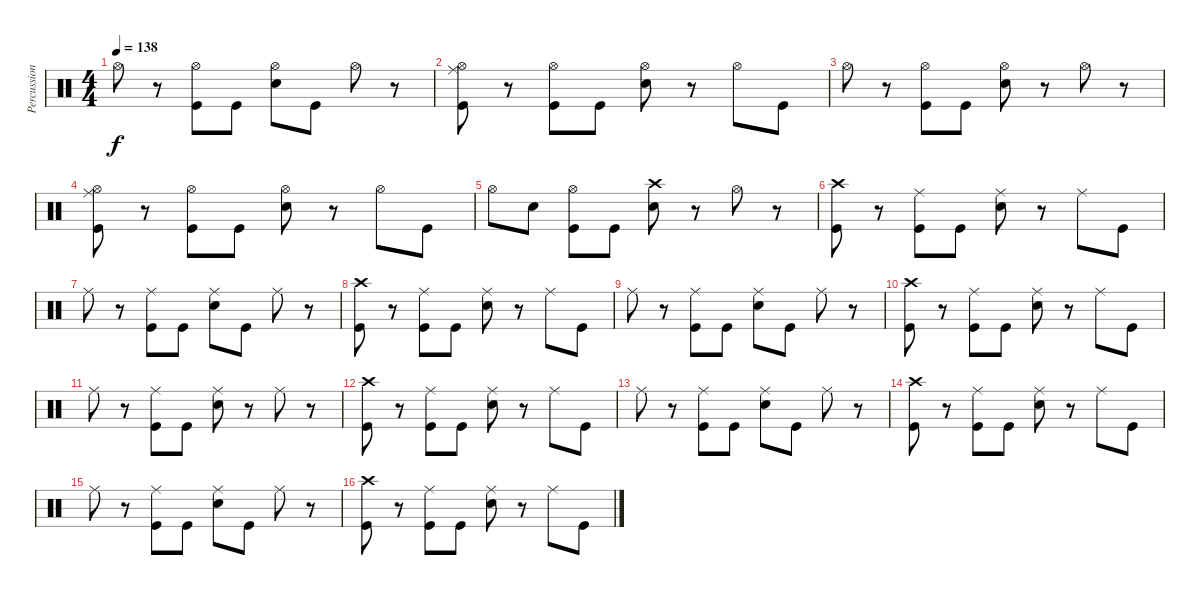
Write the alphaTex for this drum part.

\track ("Percussion" "Percussion") {instrument percussion}
\staff {score}
\articulation defaults
\ts (4 4)
\tempo 138
\clef neutral
\ks c "Hi-Hat (open)".8{dy f}
r.8 ("Hi-Hat (open)" "Kick (hit)").8 "Kick (hit)".8 ("Snare (hit) 2" "Hi-Hat (open)").8 "Kick (hit)".8 "Hi-Hat (open)".8 r.8 |
("Hi-Hat (open)" "Ride (middle)" "Kick (hit)").8 r.8 ("Hi-Hat (open)" "Kick (hit)").8 "Kick (hit)".8 ("Snare (hit) 2" "Hi-Hat (open)").8 r.8 "Hi-Hat (open)".8 "Kick (hit)".8 |
"Hi-Hat (open)".8 r.8 ("Hi-Hat (open)" "Kick (hit)").8 "Kick (hit)".8 ("Snare (hit) 2" "Hi-Hat (open)").8 r.8 "Hi-Hat (open)".8 r.8 |
("Hi-Hat (open)" "Ride (middle)" "Kick (hit)").8 r.8 ("Hi-Hat (open)" "Kick (hit)").8 "Kick (hit)".8 ("Snare (hit) 2" "Hi-Hat (open)").8 r.8 "Hi-Hat (open)".8 "Kick (hit)".8 |
"Hi-Hat (open)".8 "Snare (hit) 2".8 ("Hi-Hat (open)" "Kick (hit)").8 "Kick (hit)".8 ("Snare (hit) 2" "Crash high (hit)").8 r.8 "Hi-Hat (open)".8 r.8 |
("Crash high (hit)" "Kick (hit)").8 r.8 ("Ride (middle)" "Kick (hit)").8 "Kick (hit)".8 ("Snare (hit) 2" "Ride (middle)").8 r.8 "Ride (middle)".8 "Kick (hit)".8 |
"Ride (middle)".8 r.8 ("Ride (middle)" "Kick (hit)").8 "Kick (hit)".8 ("Snare (hit) 2" "Ride (middle)").8 "Kick (hit)".8 "Ride (middle)".8 r.8 |
("Crash high (hit)" "Kick (hit)").8 r.8 ("Ride (middle)" "Kick (hit)").8 "Kick (hit)".8 ("Snare (hit) 2" "Ride (middle)").8 r.8 "Ride (middle)".8 "Kick (hit)".8 |
"Ride (middle)".8 r.8 ("Ride (middle)" "Kick (hit)").8 "Kick (hit)".8 ("Snare (hit) 2" "Ride (middle)").8 "Kick (hit)".8 "Ride (middle)".8 r.8 |
("Crash high (hit)" "Kick (hit)").8 r.8 ("Ride (middle)" "Kick (hit)").8 "Kick (hit)".8 ("Snare (hit) 2" "Ride (middle)").8 r.8 "Ride (middle)".8 "Kick (hit)".8 |
"Ride (middle)".8 r.8 ("Ride (middle)" "Kick (hit)").8 "Kick (hit)".8 ("Snare (hit) 2" "Ride (middle)").8 r.8 "Ride (middle)".8 r.8 |
("Crash high (hit)" "Kick (hit)").8 r.8 ("Ride (middle)" "Kick (hit)").8 "Kick (hit)".8 ("Snare (hit) 2" "Ride (middle)").8 r.8 "Ride (middle)".8 "Kick (hit)".8 |
"Ride (middle)".8 r.8 ("Ride (middle)" "Kick (hit)").8 "Kick (hit)".8 ("Snare (hit) 2" "Ride (middle)").8 "Kick (hit)".8 "Ride (middle)".8 r.8 |
("Crash high (hit)" "Kick (hit)").8 r.8 ("Ride (middle)" "Kick (hit)").8 "Kick (hit)".8 ("Snare (hit) 2" "Ride (middle)").8 r.8 "Ride (middle)".8 "Kick (hit)".8 |
"Ride (middle)".8 r.8 ("Ride (middle)" "Kick (hit)").8 "Kick (hit)".8 ("Snare (hit) 2" "Ride (middle)").8 "Kick (hit)".8 "Ride (middle)".8 r.8 |
("Crash high (hit)" "Kick (hit)").8 r.8 ("Ride (middle)" "Kick (hit)").8 "Kick (hit)".8 ("Snare (hit) 2" "Ride (middle)").8 r.8 "Ride (middle)".8 "Kick (hit)".8
